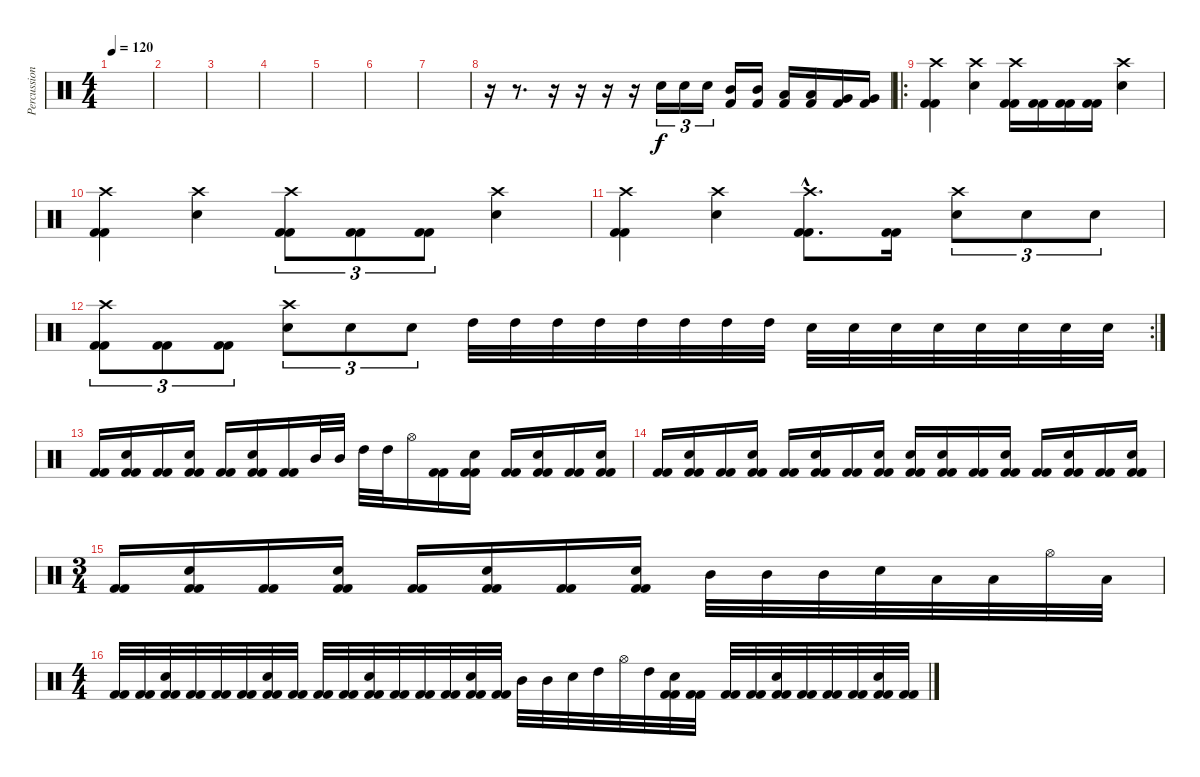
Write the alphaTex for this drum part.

\track ("Percussions" "Percussion") {instrument percussion}
\staff {score}
\articulation defaults
\ts (4 4)
\tempo 120
\clef neutral
\ks c
|
|
|
|
|
|
|
r.16 r.8{d} r.16 r.16 r.16 r.16 "Electric Snare (hit)".16{tu (3 2)} "Electric Snare (hit)".16{tu (3 2)} "Electric Snare (hit)".16{tu (3 2)} ("Mid Tom (hit)" "Kick (hit) 2").16 ("Mid Tom (hit)" "Kick (hit) 2").16 ("Low Tom (hit)" "Kick (hit) 2").16 ("Low Tom (hit)" "Kick (hit) 2").16 ("Very Low Tom (hit)" "Kick (hit) 2").16 ("Very Low Tom (hit)" "Kick (hit) 2").16 |
\ro
("Kick (hit) 2" "Kick (hit) 2" "Crash high (hit)").4 ("Electric Snare (hit)" "Crash high (hit)").4 ("Kick (hit) 2" "Kick (hit) 2" "Crash high (hit)").16 ("Kick (hit) 2" "Kick (hit) 2").16 ("Kick (hit) 2" "Kick (hit) 2").16 ("Kick (hit) 2" "Kick (hit) 2").16 ("Electric Snare (hit)" "Crash high (hit)").4 |
("Kick (hit) 2" "Kick (hit) 2" "Crash high (hit)").4 ("Electric Snare (hit)" "Crash high (hit)").4 ("Kick (hit) 2" "Kick (hit) 2" "Crash high (hit)").8{tu (3 2)} ("Kick (hit) 2" "Kick (hit) 2").8{tu (3 2)} ("Kick (hit) 2" "Kick (hit) 2").8{tu (3 2)} ("Electric Snare (hit)" "Crash high (hit)").4 |
("Kick (hit) 2" "Kick (hit) 2" "Crash high (hit)").4 ("Electric Snare (hit)" "Crash high (hit)").4 ("Kick (hit) 2"{hac} "Kick (hit) 2"{hac} "Crash high (hit)"{hac}).8{d} ("Kick (hit) 2" "Kick (hit) 2").16 ("Electric Snare (hit)" "Crash high (hit)").8{tu (3 2)} "Electric Snare (hit)".8{tu (3 2)} "Electric Snare (hit)".8{tu (3 2)} |
\rc 2
("Kick (hit) 2" "Kick (hit) 2" "Crash high (hit)").8{tu (3 2)} ("Kick (hit) 2" "Kick (hit) 2").8{tu (3 2)} ("Kick (hit) 2" "Kick (hit) 2").8{tu (3 2)} ("Electric Snare (hit)" "Crash high (hit)").8{tu (3 2)} "Electric Snare (hit)".8{tu (3 2)} "Electric Snare (hit)".8{tu (3 2)} "High Tom (hit)".32 "High Tom (hit)".32 "High Tom (hit)".32 "High Tom (hit)".32 "High Tom (hit)".32 "High Tom (hit)".32 "High Tom (hit)".32 "High Tom (hit)".32 "Electric Snare (hit)".32 "Electric Snare (hit)".32 "Electric Snare (hit)".32 "Electric Snare (hit)".32 "Electric Snare (hit)".32 "Electric Snare (hit)".32 "Electric Snare (hit)".32 "Electric Snare (hit)".32 |
("Kick (hit) 2" "Kick (hit) 2").16 ("Kick (hit) 2" "Kick (hit) 2" "Electric Snare (hit)").16 ("Kick (hit) 2" "Kick (hit) 2").16 ("Kick (hit) 2" "Kick (hit) 2" "Electric Snare (hit)").16 ("Kick (hit) 2" "Kick (hit) 2").16 ("Kick (hit) 2" "Kick (hit) 2" "Electric Snare (hit)").16 ("Kick (hit) 2" "Kick (hit) 2").16 "Mid Tom (hit)".32 "Mid Tom (hit)".32 "High Tom (hit)".32 "High Tom (hit)".32 "Hi-Hat (open)".16 ("Kick (hit) 2" "Kick (hit) 2").16 ("Kick (hit) 2" "Kick (hit) 2" "Electric Snare (hit)").16 ("Kick (hit) 2" "Kick (hit) 2").16 ("Kick (hit) 2" "Kick (hit) 2" "Electric Snare (hit)").16 ("Kick (hit) 2" "Kick (hit) 2").16 ("Kick (hit) 2" "Kick (hit) 2" "Electric Snare (hit)").16 |
("Kick (hit) 2" "Kick (hit) 2").16 ("Kick (hit) 2" "Kick (hit) 2" "Electric Snare (hit)").16 ("Kick (hit) 2" "Kick (hit) 2").16 ("Kick (hit) 2" "Kick (hit) 2" "Electric Snare (hit)").16 ("Kick (hit) 2" "Kick (hit) 2").16 ("Kick (hit) 2" "Kick (hit) 2" "Electric Snare (hit)").16 ("Kick (hit) 2" "Kick (hit) 2").16 ("Kick (hit) 2" "Kick (hit) 2" "Electric Snare (hit)").16 ("Kick (hit) 2" "Kick (hit) 2" "Electric Snare (hit)").16 ("Kick (hit) 2" "Kick (hit) 2" "Electric Snare (hit)").16 ("Kick (hit) 2" "Kick (hit) 2").16 ("Kick (hit) 2" "Kick (hit) 2" "Electric Snare (hit)").16 ("Kick (hit) 2" "Kick (hit) 2").16 ("Kick (hit) 2" "Kick (hit) 2" "Electric Snare (hit)").16 ("Kick (hit) 2" "Kick (hit) 2").16 ("Kick (hit) 2" "Kick (hit) 2" "Electric Snare (hit)").16 |
\ts (3 4)
("Kick (hit) 2" "Kick (hit) 2").16 ("Kick (hit) 2" "Kick (hit) 2" "Electric Snare (hit)").16 ("Kick (hit) 2" "Kick (hit) 2").16 ("Kick (hit) 2" "Kick (hit) 2" "Electric Snare (hit)").16 ("Kick (hit) 2" "Kick (hit) 2").16 ("Kick (hit) 2" "Kick (hit) 2" "Electric Snare (hit)").16 ("Kick (hit) 2" "Kick (hit) 2").16 ("Kick (hit) 2" "Kick (hit) 2" "Electric Snare (hit)").16 "Mid Tom (hit)".32 "Mid Tom (hit)".32 "Mid Tom (hit)".32 "Electric Snare (hit)".32 "Low Tom (hit)".32 "Low Tom (hit)".32 "Hi-Hat (open)".32 "Low Tom (hit)".32 |
\ts (4 4)
("Kick (hit) 2" "Kick (hit) 2").32 ("Kick (hit) 2" "Kick (hit) 2").32 ("Kick (hit) 2" "Kick (hit) 2" "Electric Snare (hit)").32 ("Kick (hit) 2" "Kick (hit) 2").32 ("Kick (hit) 2" "Kick (hit) 2").32 ("Kick (hit) 2" "Kick (hit) 2").32 ("Kick (hit) 2" "Kick (hit) 2" "Electric Snare (hit)").32 ("Kick (hit) 2" "Kick (hit) 2").32 ("Kick (hit) 2" "Kick (hit) 2").32 ("Kick (hit) 2" "Kick (hit) 2").32 ("Kick (hit) 2" "Kick (hit) 2" "Electric Snare (hit)").32 ("Kick (hit) 2" "Kick (hit) 2").32 ("Kick (hit) 2" "Kick (hit) 2").32 ("Kick (hit) 2" "Kick (hit) 2").32 ("Kick (hit) 2" "Kick (hit) 2" "Electric Snare (hit)").32 ("Kick (hit) 2" "Kick (hit) 2").32 "Mid Tom (hit)".32 "Mid Tom (hit)".32 "Electric Snare (hit)".32 "High Tom (hit)".32 "Hi-Hat (open)".32 "High Tom (hit)".32 ("Kick (hit) 2" "Kick (hit) 2" "Electric Snare (hit)").32 ("Kick (hit) 2" "Kick (hit) 2").32 ("Kick (hit) 2" "Kick (hit) 2").32 ("Kick (hit) 2" "Kick (hit) 2").32 ("Kick (hit) 2" "Kick (hit) 2" "Electric Snare (hit)").32 ("Kick (hit) 2" "Kick (hit) 2").32 ("Kick (hit) 2" "Kick (hit) 2").32 ("Kick (hit) 2" "Kick (hit) 2").32 ("Kick (hit) 2" "Kick (hit) 2" "Electric Snare (hit)").32 ("Kick (hit) 2" "Kick (hit) 2").32
